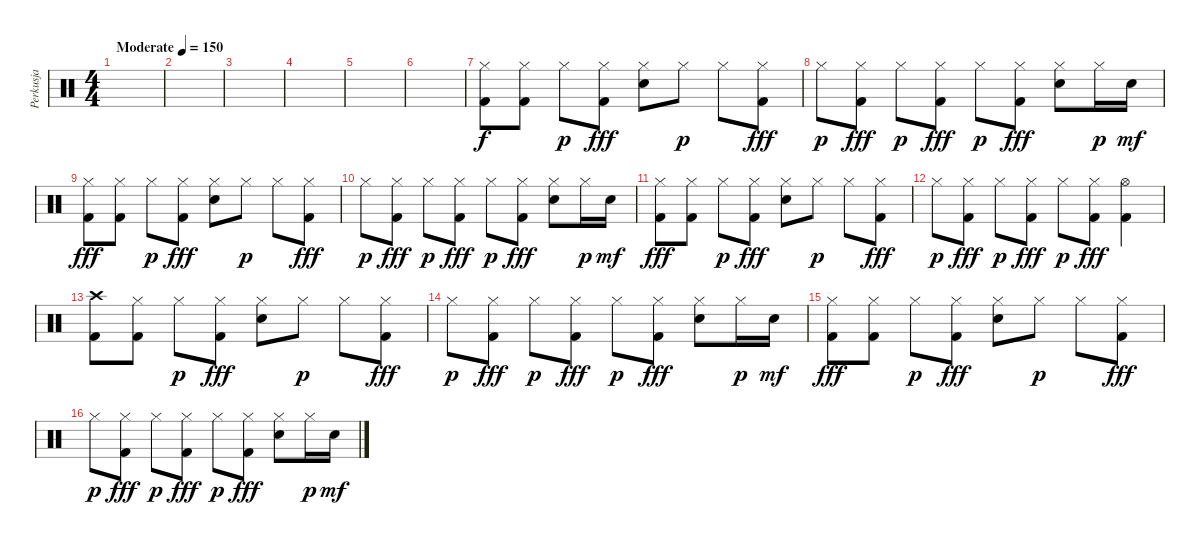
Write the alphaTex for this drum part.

\track ("Perkusja" "Perkusja") {instrument percussion}
\staff {score}
\articulation defaults
\ts (4 4)
\tempo (150 "Moderate")
\clef neutral
\ks c
|
|
|
|
|
|
("Hi-Hat (closed)" "Kick (hit) 2").8 ("Hi-Hat (closed)" "Kick (hit) 2").8 "Hi-Hat (closed)".8{dy p} ("Hi-Hat (closed)" "Kick (hit) 2").8{dy fff} ("Hi-Hat (closed)" "Electric Snare (hit)").8 "Hi-Hat (closed)".8{dy p} "Hi-Hat (closed)".8 ("Hi-Hat (closed)" "Kick (hit) 2").8{dy fff} |
"Hi-Hat (closed)".8{dy p} ("Hi-Hat (closed)" "Kick (hit) 2").8{dy fff} "Hi-Hat (closed)".8{dy p} ("Hi-Hat (closed)" "Kick (hit) 2").8{dy fff} "Hi-Hat (closed)".8{dy p} ("Hi-Hat (closed)" "Kick (hit) 2").8{dy fff} ("Hi-Hat (closed)" "Electric Snare (hit)").8 "Hi-Hat (closed)".16{dy p} "Electric Snare (hit)".16{dy mf} |
("Hi-Hat (closed)" "Kick (hit) 2").8{dy fff} ("Hi-Hat (closed)" "Kick (hit) 2").8 "Hi-Hat (closed)".8{dy p} ("Hi-Hat (closed)" "Kick (hit) 2").8{dy fff} ("Hi-Hat (closed)" "Electric Snare (hit)").8 "Hi-Hat (closed)".8{dy p} "Hi-Hat (closed)".8 ("Hi-Hat (closed)" "Kick (hit) 2").8{dy fff} |
"Hi-Hat (closed)".8{dy p} ("Hi-Hat (closed)" "Kick (hit) 2").8{dy fff} "Hi-Hat (closed)".8{dy p} ("Hi-Hat (closed)" "Kick (hit) 2").8{dy fff} "Hi-Hat (closed)".8{dy p} ("Hi-Hat (closed)" "Kick (hit) 2").8{dy fff} ("Hi-Hat (closed)" "Electric Snare (hit)").8 "Hi-Hat (closed)".16{dy p} "Electric Snare (hit)".16{dy mf} |
("Hi-Hat (closed)" "Kick (hit) 2").8{dy fff} ("Hi-Hat (closed)" "Kick (hit) 2").8 "Hi-Hat (closed)".8{dy p} ("Hi-Hat (closed)" "Kick (hit) 2").8{dy fff} ("Hi-Hat (closed)" "Electric Snare (hit)").8 "Hi-Hat (closed)".8{dy p} "Hi-Hat (closed)".8 ("Hi-Hat (closed)" "Kick (hit) 2").8{dy fff} |
"Hi-Hat (closed)".8{dy p} ("Hi-Hat (closed)" "Kick (hit) 2").8{dy fff} "Hi-Hat (closed)".8{dy p} ("Hi-Hat (closed)" "Kick (hit) 2").8{dy fff} "Hi-Hat (closed)".8{dy p} ("Hi-Hat (closed)" "Kick (hit) 2").8{dy fff} ("Hi-Hat (open)" "Kick (hit) 2").4 |
("Crash high (hit)" "Kick (hit) 2").8 ("Hi-Hat (closed)" "Kick (hit) 2").8 "Hi-Hat (closed)".8{dy p} ("Hi-Hat (closed)" "Kick (hit) 2").8{dy fff} ("Hi-Hat (closed)" "Electric Snare (hit)").8 "Hi-Hat (closed)".8{dy p} "Hi-Hat (closed)".8 ("Hi-Hat (closed)" "Kick (hit) 2").8{dy fff} |
"Hi-Hat (closed)".8{dy p} ("Hi-Hat (closed)" "Kick (hit) 2").8{dy fff} "Hi-Hat (closed)".8{dy p} ("Hi-Hat (closed)" "Kick (hit) 2").8{dy fff} "Hi-Hat (closed)".8{dy p} ("Hi-Hat (closed)" "Kick (hit) 2").8{dy fff} ("Hi-Hat (closed)" "Electric Snare (hit)").8 "Hi-Hat (closed)".16{dy p} "Electric Snare (hit)".16{dy mf} |
("Hi-Hat (closed)" "Kick (hit) 2").8{dy fff} ("Hi-Hat (closed)" "Kick (hit) 2").8 "Hi-Hat (closed)".8{dy p} ("Hi-Hat (closed)" "Kick (hit) 2").8{dy fff} ("Hi-Hat (closed)" "Electric Snare (hit)").8 "Hi-Hat (closed)".8{dy p} "Hi-Hat (closed)".8 ("Hi-Hat (closed)" "Kick (hit) 2").8{dy fff} |
"Hi-Hat (closed)".8{dy p} ("Hi-Hat (closed)" "Kick (hit) 2").8{dy fff} "Hi-Hat (closed)".8{dy p} ("Hi-Hat (closed)" "Kick (hit) 2").8{dy fff} "Hi-Hat (closed)".8{dy p} ("Hi-Hat (closed)" "Kick (hit) 2").8{dy fff} ("Hi-Hat (closed)" "Electric Snare (hit)").8 "Hi-Hat (closed)".16{dy p} "Electric Snare (hit)".16{dy mf}
